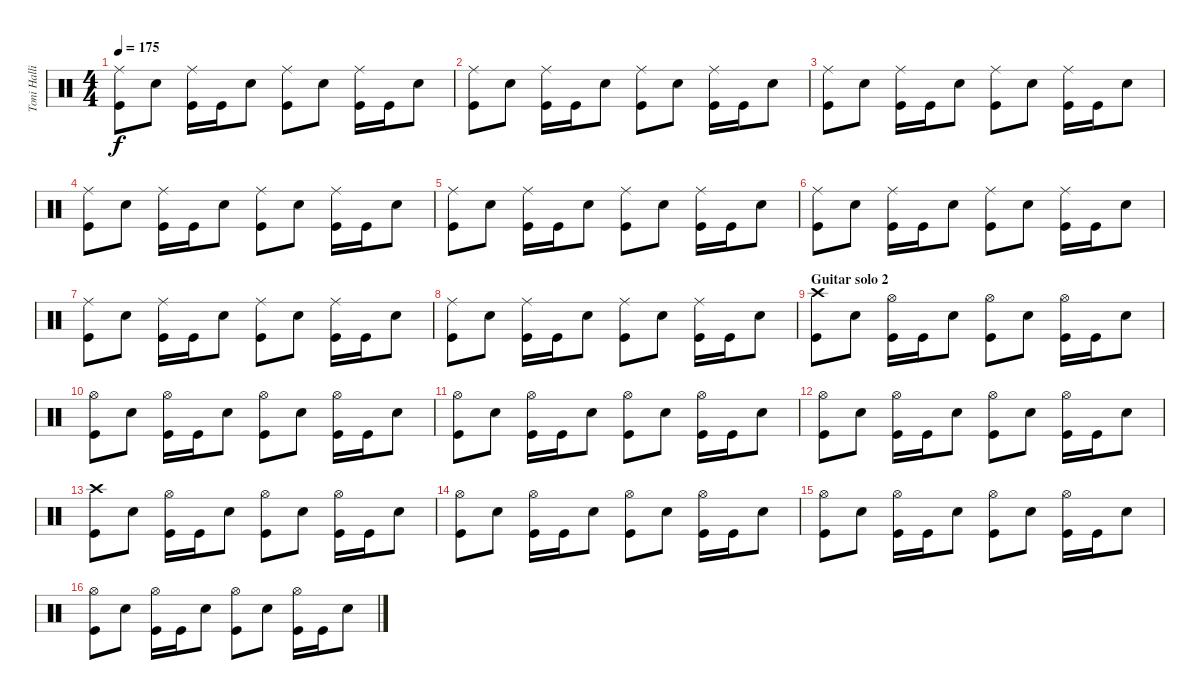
\track ("Toni Hallio" "Toni Halli") {instrument percussion}
\staff {score}
\articulation defaults
\ts (4 4)
\tempo 175
\clef neutral
\ks c
("Ride (middle)" "Kick (hit)").8{dy f} "Snare (hit) 2".8 ("Ride (middle)" "Kick (hit)").16 "Kick (hit)".16 "Snare (hit) 2".8 ("Ride (middle)" "Kick (hit)").8 "Snare (hit) 2".8 ("Ride (middle)" "Kick (hit)").16 "Kick (hit)".16 "Snare (hit) 2".8 |
("Ride (middle)" "Kick (hit)").8 "Snare (hit) 2".8 ("Ride (middle)" "Kick (hit)").16 "Kick (hit)".16 "Snare (hit) 2".8 ("Ride (middle)" "Kick (hit)").8 "Snare (hit) 2".8 ("Ride (middle)" "Kick (hit)").16 "Kick (hit)".16 "Snare (hit) 2".8 |
("Ride (middle)" "Kick (hit)").8 "Snare (hit) 2".8 ("Ride (middle)" "Kick (hit)").16 "Kick (hit)".16 "Snare (hit) 2".8 ("Ride (middle)" "Kick (hit)").8 "Snare (hit) 2".8 ("Ride (middle)" "Kick (hit)").16 "Kick (hit)".16 "Snare (hit) 2".8 |
("Ride (middle)" "Kick (hit)").8 "Snare (hit) 2".8 ("Ride (middle)" "Kick (hit)").16 "Kick (hit)".16 "Snare (hit) 2".8 ("Ride (middle)" "Kick (hit)").8 "Snare (hit) 2".8 ("Ride (middle)" "Kick (hit)").16 "Kick (hit)".16 "Snare (hit) 2".8 |
("Ride (middle)" "Kick (hit)").8 "Snare (hit) 2".8 ("Ride (middle)" "Kick (hit)").16 "Kick (hit)".16 "Snare (hit) 2".8 ("Ride (middle)" "Kick (hit)").8 "Snare (hit) 2".8 ("Ride (middle)" "Kick (hit)").16 "Kick (hit)".16 "Snare (hit) 2".8 |
("Ride (middle)" "Kick (hit)").8 "Snare (hit) 2".8 ("Ride (middle)" "Kick (hit)").16 "Kick (hit)".16 "Snare (hit) 2".8 ("Ride (middle)" "Kick (hit)").8 "Snare (hit) 2".8 ("Ride (middle)" "Kick (hit)").16 "Kick (hit)".16 "Snare (hit) 2".8 |
("Ride (middle)" "Kick (hit)").8 "Snare (hit) 2".8 ("Ride (middle)" "Kick (hit)").16 "Kick (hit)".16 "Snare (hit) 2".8 ("Ride (middle)" "Kick (hit)").8 "Snare (hit) 2".8 ("Ride (middle)" "Kick (hit)").16 "Kick (hit)".16 "Snare (hit) 2".8 |
("Ride (middle)" "Kick (hit)").8 "Snare (hit) 2".8 ("Ride (middle)" "Kick (hit)").16 "Kick (hit)".16 "Snare (hit) 2".8 ("Ride (middle)" "Kick (hit)").8 "Snare (hit) 2".8 ("Ride (middle)" "Kick (hit)").16 "Kick (hit)".16 "Snare (hit) 2".8 |
\section ("" "Guitar solo 2")
("Crash high (hit)" "Kick (hit)").8 "Snare (hit) 2".8 ("Hi-Hat (open)" "Kick (hit)").16 "Kick (hit)".16 "Snare (hit) 2".8 ("Hi-Hat (open)" "Kick (hit)").8 "Snare (hit) 2".8 ("Hi-Hat (open)" "Kick (hit)").16 "Kick (hit)".16 "Snare (hit) 2".8 |
("Hi-Hat (open)" "Kick (hit)").8 "Snare (hit) 2".8 ("Hi-Hat (open)" "Kick (hit)").16 "Kick (hit)".16 "Snare (hit) 2".8 ("Hi-Hat (open)" "Kick (hit)").8 "Snare (hit) 2".8 ("Hi-Hat (open)" "Kick (hit)").16 "Kick (hit)".16 "Snare (hit) 2".8 |
("Hi-Hat (open)" "Kick (hit)").8 "Snare (hit) 2".8 ("Hi-Hat (open)" "Kick (hit)").16 "Kick (hit)".16 "Snare (hit) 2".8 ("Hi-Hat (open)" "Kick (hit)").8 "Snare (hit) 2".8 ("Hi-Hat (open)" "Kick (hit)").16 "Kick (hit)".16 "Snare (hit) 2".8 |
("Hi-Hat (open)" "Kick (hit)").8 "Snare (hit) 2".8 ("Hi-Hat (open)" "Kick (hit)").16 "Kick (hit)".16 "Snare (hit) 2".8 ("Hi-Hat (open)" "Kick (hit)").8 "Snare (hit) 2".8 ("Hi-Hat (open)" "Kick (hit)").16 "Kick (hit)".16 "Snare (hit) 2".8 |
("Crash high (hit)" "Kick (hit)").8 "Snare (hit) 2".8 ("Hi-Hat (open)" "Kick (hit)").16 "Kick (hit)".16 "Snare (hit) 2".8 ("Hi-Hat (open)" "Kick (hit)").8 "Snare (hit) 2".8 ("Hi-Hat (open)" "Kick (hit)").16 "Kick (hit)".16 "Snare (hit) 2".8 |
("Hi-Hat (open)" "Kick (hit)").8 "Snare (hit) 2".8 ("Hi-Hat (open)" "Kick (hit)").16 "Kick (hit)".16 "Snare (hit) 2".8 ("Hi-Hat (open)" "Kick (hit)").8 "Snare (hit) 2".8 ("Hi-Hat (open)" "Kick (hit)").16 "Kick (hit)".16 "Snare (hit) 2".8 |
("Hi-Hat (open)" "Kick (hit)").8 "Snare (hit) 2".8 ("Hi-Hat (open)" "Kick (hit)").16 "Kick (hit)".16 "Snare (hit) 2".8 ("Hi-Hat (open)" "Kick (hit)").8 "Snare (hit) 2".8 ("Hi-Hat (open)" "Kick (hit)").16 "Kick (hit)".16 "Snare (hit) 2".8 |
("Hi-Hat (open)" "Kick (hit)").8 "Snare (hit) 2".8 ("Hi-Hat (open)" "Kick (hit)").16 "Kick (hit)".16 "Snare (hit) 2".8 ("Hi-Hat (open)" "Kick (hit)").8 "Snare (hit) 2".8 ("Hi-Hat (open)" "Kick (hit)").16 "Kick (hit)".16 "Snare (hit) 2".8
